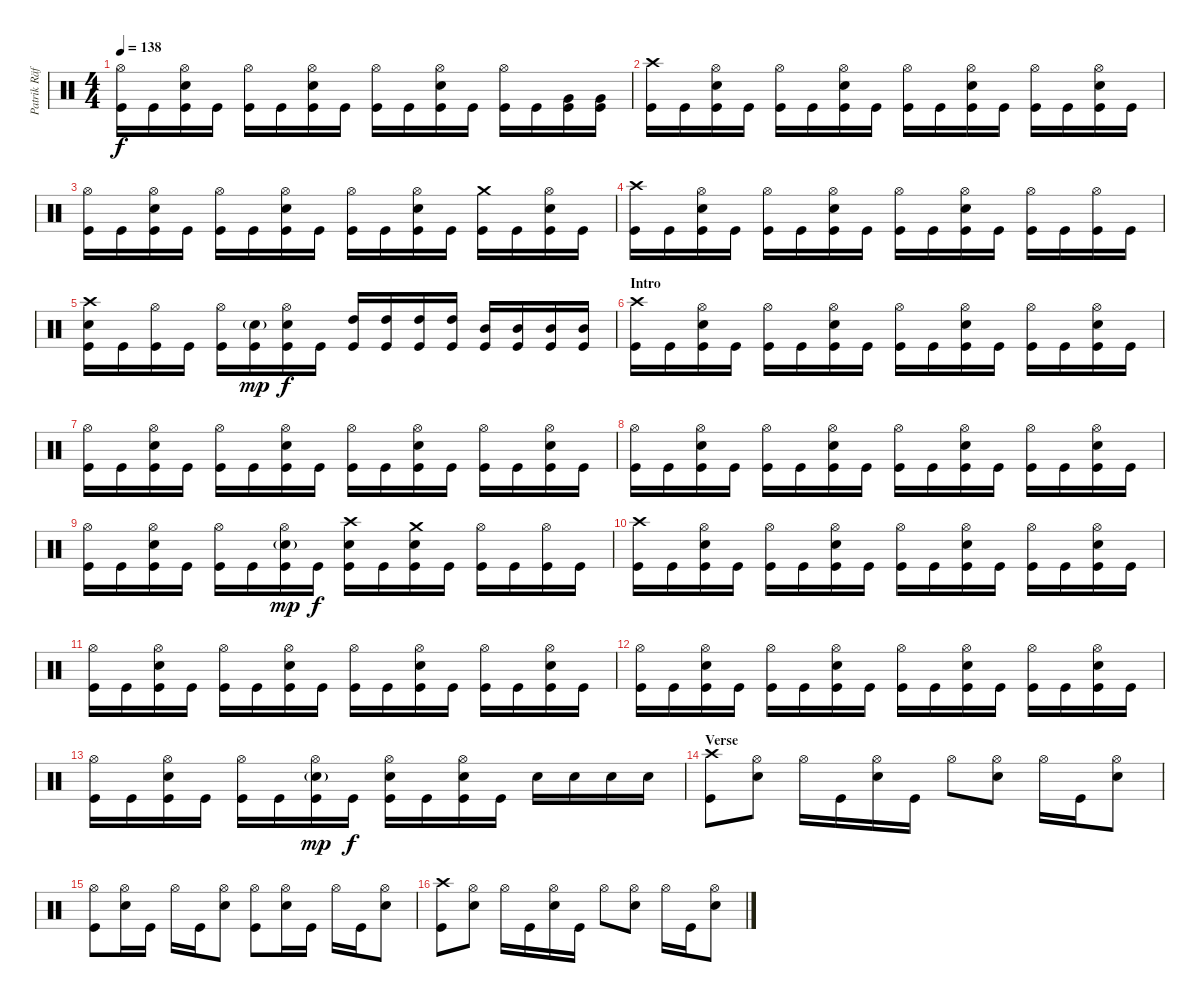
\track ("Patrik Räfling" "Patrik Räf") {instrument percussion}
\staff {score}
\articulation defaults
\ts (4 4)
\tempo 138
\clef neutral
\ks c
("Hi-Hat (open)" "Kick (hit)").16{dy f} "Kick (hit)".16 ("Hi-Hat (open)" "Snare (hit) 2" "Kick (hit)").16 "Kick (hit)".16 ("Hi-Hat (open)" "Kick (hit)").16 "Kick (hit)".16 ("Hi-Hat (open)" "Snare (hit) 2" "Kick (hit)").16 "Kick (hit)".16 ("Hi-Hat (open)" "Kick (hit)").16 "Kick (hit)".16 ("Hi-Hat (open)" "Snare (hit) 2" "Kick (hit)").16 "Kick (hit)".16 ("Hi-Hat (open)" "Kick (hit)").16 "Kick (hit)".16 ("Very Low Tom (hit)" "Kick (hit)").16 ("Very Low Tom (hit)" "Kick (hit)").16 |
("Crash high (hit)" "Kick (hit)").16 "Kick (hit)".16 ("Hi-Hat (open)" "Snare (hit) 2" "Kick (hit)").16 "Kick (hit)".16 ("Hi-Hat (open)" "Kick (hit)").16 "Kick (hit)".16 ("Hi-Hat (open)" "Snare (hit) 2" "Kick (hit)").16 "Kick (hit)".16 ("Hi-Hat (open)" "Kick (hit)").16 "Kick (hit)".16 ("Hi-Hat (open)" "Snare (hit) 2" "Kick (hit)").16 "Kick (hit)".16 ("Hi-Hat (open)" "Kick (hit)").16 "Kick (hit)".16 ("Hi-Hat (open)" "Snare (hit) 2" "Kick (hit)").16 "Kick (hit)".16 |
("Hi-Hat (open)" "Kick (hit)").16 "Kick (hit)".16 ("Hi-Hat (open)" "Snare (hit) 2" "Kick (hit)").16 "Kick (hit)".16 ("Hi-Hat (open)" "Kick (hit)").16 "Kick (hit)".16 ("Hi-Hat (open)" "Snare (hit) 2" "Kick (hit)").16 "Kick (hit)".16 ("Hi-Hat (open)" "Kick (hit)").16 "Kick (hit)".16 ("Hi-Hat (open)" "Snare (hit) 2" "Kick (hit)").16 "Kick (hit)".16 ("Crash medium (hit)" "Kick (hit)").16 "Kick (hit)".16 ("Hi-Hat (open)" "Snare (hit) 2" "Kick (hit)").16 "Kick (hit)".16 |
("Crash high (hit)" "Kick (hit)").16 "Kick (hit)".16 ("Hi-Hat (open)" "Snare (hit) 2" "Kick (hit)").16 "Kick (hit)".16 ("Hi-Hat (open)" "Kick (hit)").16 "Kick (hit)".16 ("Hi-Hat (open)" "Snare (hit) 2" "Kick (hit)").16 "Kick (hit)".16 ("Hi-Hat (open)" "Kick (hit)").16 "Kick (hit)".16 ("Hi-Hat (open)" "Snare (hit) 2" "Kick (hit)").16 "Kick (hit)".16 ("Hi-Hat (open)" "Kick (hit)").16 "Kick (hit)".16 ("Hi-Hat (open)" "Kick (hit)").16 "Kick (hit)".16 |
("Crash high (hit)" "Snare (hit) 2" "Kick (hit)").16 "Kick (hit)".16 ("Hi-Hat (open)" "Kick (hit)").16 "Kick (hit)".16 ("Hi-Hat (open)" "Kick (hit)").16 ("Snare (hit) 2"{g} "Kick (hit)").16{dy mp} ("Hi-Hat (open)" "Snare (hit) 2" "Kick (hit)").16{dy f} "Kick (hit)".16 ("High Tom (hit)" "Kick (hit)").16 ("High Tom (hit)" "Kick (hit)").16 ("High Tom (hit)" "Kick (hit)").16 ("High Tom (hit)" "Kick (hit)").16 ("Mid Tom (hit)" "Kick (hit)").16 ("Mid Tom (hit)" "Kick (hit)").16 ("Mid Tom (hit)" "Kick (hit)").16 ("Mid Tom (hit)" "Kick (hit)").16 |
\section ("" "Intro")
("Crash high (hit)" "Kick (hit)").16 "Kick (hit)".16 ("Hi-Hat (open)" "Snare (hit) 2" "Kick (hit)").16 "Kick (hit)".16 ("Hi-Hat (open)" "Kick (hit)").16 "Kick (hit)".16 ("Hi-Hat (open)" "Snare (hit) 2" "Kick (hit)").16 "Kick (hit)".16 ("Hi-Hat (open)" "Kick (hit)").16 "Kick (hit)".16 ("Hi-Hat (open)" "Snare (hit) 2" "Kick (hit)").16 "Kick (hit)".16 ("Hi-Hat (open)" "Kick (hit)").16 "Kick (hit)".16 ("Hi-Hat (open)" "Snare (hit) 2" "Kick (hit)").16 "Kick (hit)".16 |
("Hi-Hat (open)" "Kick (hit)").16 "Kick (hit)".16 ("Hi-Hat (open)" "Snare (hit) 2" "Kick (hit)").16 "Kick (hit)".16 ("Hi-Hat (open)" "Kick (hit)").16 "Kick (hit)".16 ("Hi-Hat (open)" "Snare (hit) 2" "Kick (hit)").16 "Kick (hit)".16 ("Hi-Hat (open)" "Kick (hit)").16 "Kick (hit)".16 ("Hi-Hat (open)" "Snare (hit) 2" "Kick (hit)").16 "Kick (hit)".16 ("Hi-Hat (open)" "Kick (hit)").16 "Kick (hit)".16 ("Hi-Hat (open)" "Snare (hit) 2" "Kick (hit)").16 "Kick (hit)".16 |
("Hi-Hat (open)" "Kick (hit)").16 "Kick (hit)".16 ("Hi-Hat (open)" "Snare (hit) 2" "Kick (hit)").16 "Kick (hit)".16 ("Hi-Hat (open)" "Kick (hit)").16 "Kick (hit)".16 ("Hi-Hat (open)" "Snare (hit) 2" "Kick (hit)").16 "Kick (hit)".16 ("Hi-Hat (open)" "Kick (hit)").16 "Kick (hit)".16 ("Hi-Hat (open)" "Snare (hit) 2" "Kick (hit)").16 "Kick (hit)".16 ("Hi-Hat (open)" "Kick (hit)").16 "Kick (hit)".16 ("Hi-Hat (open)" "Snare (hit) 2" "Kick (hit)").16 "Kick (hit)".16 |
("Hi-Hat (open)" "Kick (hit)").16 "Kick (hit)".16 ("Hi-Hat (open)" "Snare (hit) 2" "Kick (hit)").16 "Kick (hit)".16 ("Hi-Hat (open)" "Kick (hit)").16 "Kick (hit)".16 ("Hi-Hat (open)" "Snare (hit) 2"{g} "Kick (hit)").16{dy mp} "Kick (hit)".16{dy f} ("Crash high (hit)" "Snare (hit) 2" "Kick (hit)").16 "Kick (hit)".16 ("Crash medium (hit)" "Snare (hit) 2" "Kick (hit)").16 "Kick (hit)".16 ("Hi-Hat (open)" "Kick (hit)").16 "Kick (hit)".16 ("Hi-Hat (open)" "Kick (hit)").16 "Kick (hit)".16 |
("Crash high (hit)" "Kick (hit)").16 "Kick (hit)".16 ("Hi-Hat (open)" "Snare (hit) 2" "Kick (hit)").16 "Kick (hit)".16 ("Hi-Hat (open)" "Kick (hit)").16 "Kick (hit)".16 ("Hi-Hat (open)" "Snare (hit) 2" "Kick (hit)").16 "Kick (hit)".16 ("Hi-Hat (open)" "Kick (hit)").16 "Kick (hit)".16 ("Hi-Hat (open)" "Snare (hit) 2" "Kick (hit)").16 "Kick (hit)".16 ("Hi-Hat (open)" "Kick (hit)").16 "Kick (hit)".16 ("Hi-Hat (open)" "Snare (hit) 2" "Kick (hit)").16 "Kick (hit)".16 |
("Hi-Hat (open)" "Kick (hit)").16 "Kick (hit)".16 ("Hi-Hat (open)" "Snare (hit) 2" "Kick (hit)").16 "Kick (hit)".16 ("Hi-Hat (open)" "Kick (hit)").16 "Kick (hit)".16 ("Hi-Hat (open)" "Snare (hit) 2" "Kick (hit)").16 "Kick (hit)".16 ("Hi-Hat (open)" "Kick (hit)").16 "Kick (hit)".16 ("Hi-Hat (open)" "Snare (hit) 2" "Kick (hit)").16 "Kick (hit)".16 ("Hi-Hat (open)" "Kick (hit)").16 "Kick (hit)".16 ("Hi-Hat (open)" "Snare (hit) 2" "Kick (hit)").16 "Kick (hit)".16 |
("Hi-Hat (open)" "Kick (hit)").16 "Kick (hit)".16 ("Hi-Hat (open)" "Snare (hit) 2" "Kick (hit)").16 "Kick (hit)".16 ("Hi-Hat (open)" "Kick (hit)").16 "Kick (hit)".16 ("Hi-Hat (open)" "Snare (hit) 2" "Kick (hit)").16 "Kick (hit)".16 ("Hi-Hat (open)" "Kick (hit)").16 "Kick (hit)".16 ("Hi-Hat (open)" "Snare (hit) 2" "Kick (hit)").16 "Kick (hit)".16 ("Hi-Hat (open)" "Kick (hit)").16 "Kick (hit)".16 ("Hi-Hat (open)" "Snare (hit) 2" "Kick (hit)").16 "Kick (hit)".16 |
("Hi-Hat (open)" "Kick (hit)").16 "Kick (hit)".16 ("Hi-Hat (open)" "Snare (hit) 2" "Kick (hit)").16 "Kick (hit)".16 ("Hi-Hat (open)" "Kick (hit)").16 "Kick (hit)".16 ("Hi-Hat (open)" "Snare (hit) 2"{g} "Kick (hit)").16{dy mp} "Kick (hit)".16{dy f} ("Hi-Hat (open)" "Snare (hit) 2" "Kick (hit)").16 "Kick (hit)".16 ("Hi-Hat (open)" "Snare (hit) 2" "Kick (hit)").16 "Kick (hit)".16 "Snare (hit) 2".16 "Snare (hit) 2".16 "Snare (hit) 2".16 "Snare (hit) 2".16 |
\section ("" "Verse")
("Crash high (hit)" "Kick (hit)").8 ("Hi-Hat (open)" "Snare (hit) 2").8 "Hi-Hat (open)".16 "Kick (hit)".16 ("Hi-Hat (open)" "Snare (hit) 2").16 "Kick (hit)".16 "Hi-Hat (open)".8 ("Hi-Hat (open)" "Snare (hit) 2").8 "Hi-Hat (open)".16 "Kick (hit)".16 ("Hi-Hat (open)" "Snare (hit) 2").8 |
("Hi-Hat (open)" "Kick (hit)").8 ("Hi-Hat (open)" "Snare (hit) 2").16 "Kick (hit)".16 "Hi-Hat (open)".16 "Kick (hit)".16 ("Hi-Hat (open)" "Snare (hit) 2").8 ("Hi-Hat (open)" "Kick (hit)").8 ("Hi-Hat (open)" "Snare (hit) 2").16 "Kick (hit)".16 "Hi-Hat (open)".16 "Kick (hit)".16 ("Hi-Hat (open)" "Snare (hit) 2").8 |
("Crash high (hit)" "Kick (hit)").8 ("Hi-Hat (open)" "Snare (hit) 2").8 "Hi-Hat (open)".16 "Kick (hit)".16 ("Hi-Hat (open)" "Snare (hit) 2").16 "Kick (hit)".16 "Hi-Hat (open)".8 ("Hi-Hat (open)" "Snare (hit) 2").8 "Hi-Hat (open)".16 "Kick (hit)".16 ("Hi-Hat (open)" "Snare (hit) 2").8
